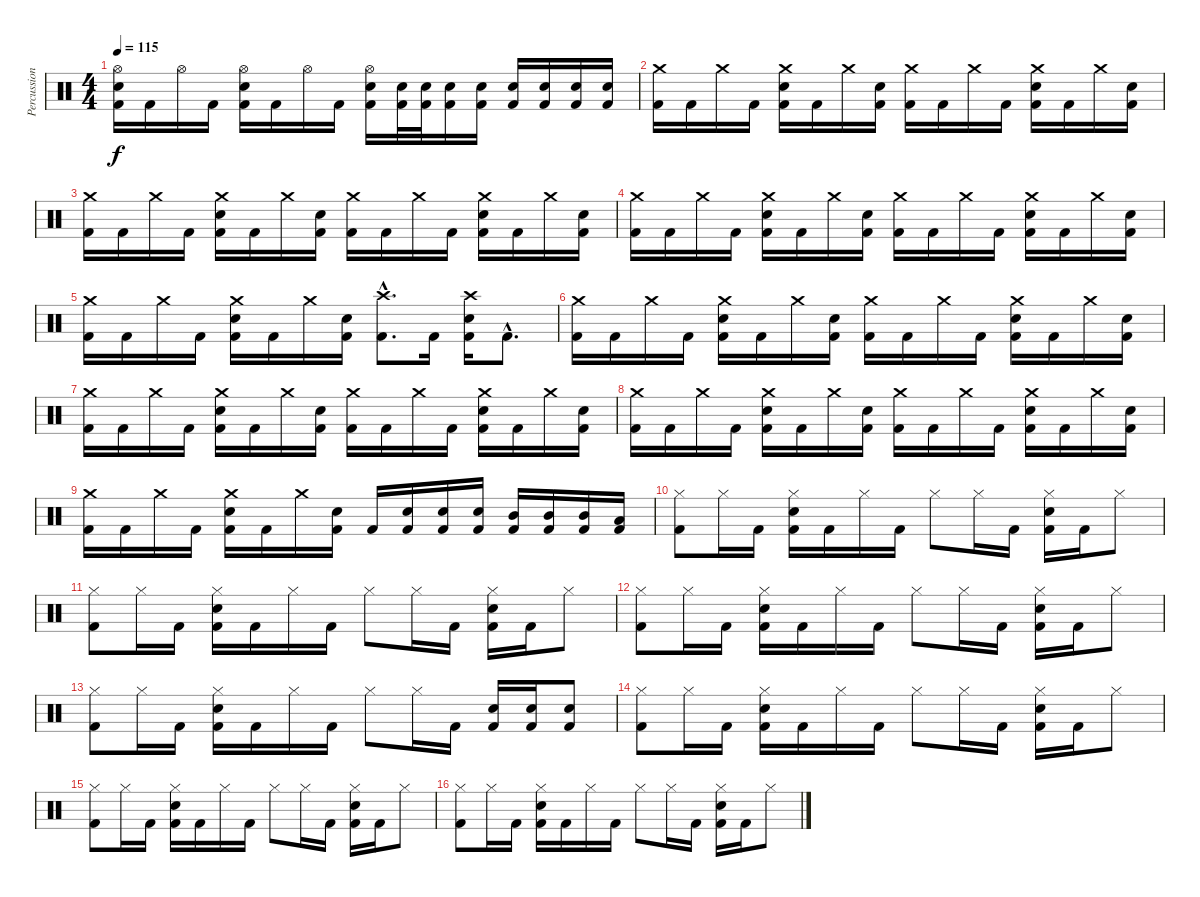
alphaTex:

\track ("Percussion" "Percussion") {instrument percussion}
\staff {score}
\articulation defaults
\ts (4 4)
\tempo 115
\clef neutral
\ks c
("Snare (hit) 2" "Kick (hit) 2" "Hi-Hat (open)").16{dy f} "Kick (hit) 2".16 "Hi-Hat (open)".16 "Kick (hit) 2".16 ("Snare (hit) 2" "Kick (hit) 2" "Hi-Hat (open)").16 "Kick (hit) 2".16 "Hi-Hat (open)".16 "Kick (hit) 2".16 ("Snare (hit) 2" "Kick (hit) 2" "Hi-Hat (open)").16 ("Snare (hit) 2" "Kick (hit) 2").32 ("Snare (hit) 2" "Kick (hit) 2").32 ("Snare (hit) 2" "Kick (hit) 2").16 ("Snare (hit) 2" "Kick (hit) 2").16 ("Snare (hit) 2" "Kick (hit) 2").16 ("Snare (hit) 2" "Kick (hit) 2").16 ("Snare (hit) 2" "Kick (hit) 2").16 ("Snare (hit) 2" "Kick (hit) 2").16 |
("Kick (hit) 2" "Crash medium (hit)").16 "Kick (hit) 2".16 "Crash medium (hit)".16 "Kick (hit) 2".16 ("Snare (hit) 2" "Kick (hit) 2" "Crash medium (hit)").16 "Kick (hit) 2".16 "Crash medium (hit)".16 ("Snare (hit) 2" "Kick (hit) 2").16 ("Kick (hit) 2" "Crash medium (hit)").16 "Kick (hit) 2".16 "Crash medium (hit)".16 "Kick (hit) 2".16 ("Snare (hit) 2" "Kick (hit) 2" "Crash medium (hit)").16 "Kick (hit) 2".16 "Crash medium (hit)".16 ("Snare (hit) 2" "Kick (hit) 2").16 |
("Kick (hit) 2" "Crash medium (hit)").16 "Kick (hit) 2".16 "Crash medium (hit)".16 "Kick (hit) 2".16 ("Snare (hit) 2" "Kick (hit) 2" "Crash medium (hit)").16 "Kick (hit) 2".16 "Crash medium (hit)".16 ("Snare (hit) 2" "Kick (hit) 2").16 ("Kick (hit) 2" "Crash medium (hit)").16 "Kick (hit) 2".16 "Crash medium (hit)".16 "Kick (hit) 2".16 ("Snare (hit) 2" "Kick (hit) 2" "Crash medium (hit)").16 "Kick (hit) 2".16 "Crash medium (hit)".16 ("Snare (hit) 2" "Kick (hit) 2").16 |
("Kick (hit) 2" "Crash medium (hit)").16 "Kick (hit) 2".16 "Crash medium (hit)".16 "Kick (hit) 2".16 ("Snare (hit) 2" "Kick (hit) 2" "Crash medium (hit)").16 "Kick (hit) 2".16 "Crash medium (hit)".16 ("Snare (hit) 2" "Kick (hit) 2").16 ("Kick (hit) 2" "Crash medium (hit)").16 "Kick (hit) 2".16 "Crash medium (hit)".16 "Kick (hit) 2".16 ("Snare (hit) 2" "Kick (hit) 2" "Crash medium (hit)").16 "Kick (hit) 2".16 "Crash medium (hit)".16 ("Snare (hit) 2" "Kick (hit) 2").16 |
("Kick (hit) 2" "Crash medium (hit)").16 "Kick (hit) 2".16 "Crash medium (hit)".16 "Kick (hit) 2".16 ("Snare (hit) 2" "Kick (hit) 2" "Crash medium (hit)").16 "Kick (hit) 2".16 "Crash medium (hit)".16 ("Snare (hit) 2" "Kick (hit) 2").16 ("Kick (hit) 2"{hac} "Crash high (hit)"{hac}).8{d} "Kick (hit) 2".16 ("Snare (hit) 2" "Kick (hit) 2" "Crash high (hit)").16 "Kick (hit) 2"{hac}.8{d} |
("Kick (hit) 2" "Crash medium (hit)").16 "Kick (hit) 2".16 "Crash medium (hit)".16 "Kick (hit) 2".16 ("Snare (hit) 2" "Kick (hit) 2" "Crash medium (hit)").16 "Kick (hit) 2".16 "Crash medium (hit)".16 ("Snare (hit) 2" "Kick (hit) 2").16 ("Kick (hit) 2" "Crash medium (hit)").16 "Kick (hit) 2".16 "Crash medium (hit)".16 "Kick (hit) 2".16 ("Snare (hit) 2" "Kick (hit) 2" "Crash medium (hit)").16 "Kick (hit) 2".16 "Crash medium (hit)".16 ("Snare (hit) 2" "Kick (hit) 2").16 |
("Kick (hit) 2" "Crash medium (hit)").16 "Kick (hit) 2".16 "Crash medium (hit)".16 "Kick (hit) 2".16 ("Snare (hit) 2" "Kick (hit) 2" "Crash medium (hit)").16 "Kick (hit) 2".16 "Crash medium (hit)".16 ("Snare (hit) 2" "Kick (hit) 2").16 ("Kick (hit) 2" "Crash medium (hit)").16 "Kick (hit) 2".16 "Crash medium (hit)".16 "Kick (hit) 2".16 ("Snare (hit) 2" "Kick (hit) 2" "Crash medium (hit)").16 "Kick (hit) 2".16 "Crash medium (hit)".16 ("Snare (hit) 2" "Kick (hit) 2").16 |
("Kick (hit) 2" "Crash medium (hit)").16 "Kick (hit) 2".16 "Crash medium (hit)".16 "Kick (hit) 2".16 ("Snare (hit) 2" "Kick (hit) 2" "Crash medium (hit)").16 "Kick (hit) 2".16 "Crash medium (hit)".16 ("Snare (hit) 2" "Kick (hit) 2").16 ("Kick (hit) 2" "Crash medium (hit)").16 "Kick (hit) 2".16 "Crash medium (hit)".16 "Kick (hit) 2".16 ("Snare (hit) 2" "Kick (hit) 2" "Crash medium (hit)").16 "Kick (hit) 2".16 "Crash medium (hit)".16 ("Snare (hit) 2" "Kick (hit) 2").16 |
("Kick (hit) 2" "Crash medium (hit)").16 "Kick (hit) 2".16 "Crash medium (hit)".16 "Kick (hit) 2".16 ("Snare (hit) 2" "Kick (hit) 2" "Crash medium (hit)").16 "Kick (hit) 2".16 "Crash medium (hit)".16 ("Snare (hit) 2" "Kick (hit) 2").16 "Kick (hit) 2".16 ("Snare (hit) 2" "Kick (hit) 2").16 ("Snare (hit) 2" "Kick (hit) 2").16 ("Snare (hit) 2" "Kick (hit) 2").16 ("Mid Tom (hit)" "Kick (hit) 2").16 ("Mid Tom (hit)" "Kick (hit) 2").16 ("Mid Tom (hit)" "Kick (hit) 2").16 ("Low Tom (hit)" "Kick (hit) 2").16 |
("Kick (hit) 2" "Hi-Hat (closed)").8 "Hi-Hat (closed)".16 "Kick (hit) 2".16 ("Snare (hit) 2" "Kick (hit) 2" "Hi-Hat (closed)").16 "Kick (hit) 2".16 "Hi-Hat (closed)".16 "Kick (hit) 2".16 "Hi-Hat (closed)".8 "Hi-Hat (closed)".16 "Kick (hit) 2".16 ("Snare (hit) 2" "Kick (hit) 2" "Hi-Hat (closed)").16 "Kick (hit) 2".16 "Hi-Hat (closed)".8 |
("Kick (hit) 2" "Hi-Hat (closed)").8 "Hi-Hat (closed)".16 "Kick (hit) 2".16 ("Snare (hit) 2" "Kick (hit) 2" "Hi-Hat (closed)").16 "Kick (hit) 2".16 "Hi-Hat (closed)".16 "Kick (hit) 2".16 "Hi-Hat (closed)".8 "Hi-Hat (closed)".16 "Kick (hit) 2".16 ("Snare (hit) 2" "Kick (hit) 2" "Hi-Hat (closed)").16 "Kick (hit) 2".16 "Hi-Hat (closed)".8 |
("Kick (hit) 2" "Hi-Hat (closed)").8 "Hi-Hat (closed)".16 "Kick (hit) 2".16 ("Snare (hit) 2" "Kick (hit) 2" "Hi-Hat (closed)").16 "Kick (hit) 2".16 "Hi-Hat (closed)".16 "Kick (hit) 2".16 "Hi-Hat (closed)".8 "Hi-Hat (closed)".16 "Kick (hit) 2".16 ("Snare (hit) 2" "Kick (hit) 2" "Hi-Hat (closed)").16 "Kick (hit) 2".16 "Hi-Hat (closed)".8 |
("Kick (hit) 2" "Hi-Hat (closed)").8 "Hi-Hat (closed)".16 "Kick (hit) 2".16 ("Snare (hit) 2" "Kick (hit) 2" "Hi-Hat (closed)").16 "Kick (hit) 2".16 "Hi-Hat (closed)".16 "Kick (hit) 2".16 "Hi-Hat (closed)".8 "Hi-Hat (closed)".16 "Kick (hit) 2".16 ("Snare (hit) 2" "Kick (hit) 2").16 ("Snare (hit) 2" "Kick (hit) 2").16 ("Snare (hit) 2" "Kick (hit) 2").8 |
("Kick (hit) 2" "Hi-Hat (closed)").8 "Hi-Hat (closed)".16 "Kick (hit) 2".16 ("Snare (hit) 2" "Kick (hit) 2" "Hi-Hat (closed)").16 "Kick (hit) 2".16 "Hi-Hat (closed)".16 "Kick (hit) 2".16 "Hi-Hat (closed)".8 "Hi-Hat (closed)".16 "Kick (hit) 2".16 ("Snare (hit) 2" "Kick (hit) 2" "Hi-Hat (closed)").16 "Kick (hit) 2".16 "Hi-Hat (closed)".8 |
("Kick (hit) 2" "Hi-Hat (closed)").8 "Hi-Hat (closed)".16 "Kick (hit) 2".16 ("Snare (hit) 2" "Kick (hit) 2" "Hi-Hat (closed)").16 "Kick (hit) 2".16 "Hi-Hat (closed)".16 "Kick (hit) 2".16 "Hi-Hat (closed)".8 "Hi-Hat (closed)".16 "Kick (hit) 2".16 ("Snare (hit) 2" "Kick (hit) 2" "Hi-Hat (closed)").16 "Kick (hit) 2".16 "Hi-Hat (closed)".8 |
("Kick (hit) 2" "Hi-Hat (closed)").8 "Hi-Hat (closed)".16 "Kick (hit) 2".16 ("Snare (hit) 2" "Kick (hit) 2" "Hi-Hat (closed)").16 "Kick (hit) 2".16 "Hi-Hat (closed)".16 "Kick (hit) 2".16 "Hi-Hat (closed)".8 "Hi-Hat (closed)".16 "Kick (hit) 2".16 ("Snare (hit) 2" "Kick (hit) 2" "Hi-Hat (closed)").16 "Kick (hit) 2".16 "Hi-Hat (closed)".8
